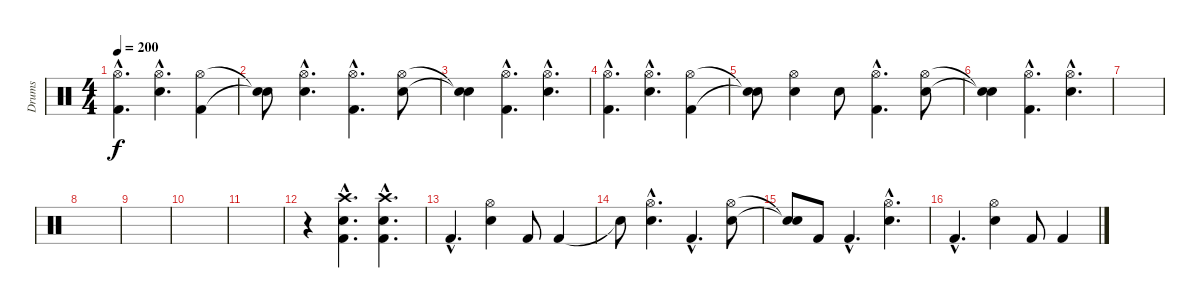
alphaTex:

\track ("Drums" "Drums") {instrument percussion}
\staff {score}
\articulation defaults
\ts (4 4)
\tempo 200
\clef neutral
\ks c
("Hi-Hat (open)"{hac} "Kick (hit) 2"{hac}).4{d dy f} ("Hi-Hat (open)"{hac} "Snare (hit) 2"{hac}).4{d} ("Hi-Hat (open)" "Kick (hit) 2").4 |
("Snare (hit)"{t} "Snare (hit)"{t}).8 ("Hi-Hat (open)"{hac} "Snare (hit) 2"{hac}).4{d} ("Hi-Hat (open)"{hac} "Kick (hit) 2"{hac}).4{d} ("Hi-Hat (open)" "Snare (hit) 2").8 |
("Snare (hit)"{t} "Snare (hit)"{t}).4 ("Hi-Hat (open)"{hac} "Kick (hit) 2"{hac}).4{d} ("Hi-Hat (open)"{hac} "Snare (hit) 2"{hac}).4{d} |
("Hi-Hat (open)"{hac} "Kick (hit) 2"{hac}).4{d} ("Hi-Hat (open)"{hac} "Snare (hit) 2"{hac}).4{d} ("Hi-Hat (open)" "Kick (hit) 2").4 |
("Snare (hit)"{t} "Snare (hit)"{t}).8 ("Hi-Hat (open)" "Snare (hit) 2").4 "Snare (hit) 2".8 ("Hi-Hat (open)"{hac} "Kick (hit) 2"{hac}).4{d} ("Hi-Hat (open)" "Snare (hit) 2").8 |
("Snare (hit)"{t} "Snare (hit)"{t}).4 ("Hi-Hat (open)"{hac} "Kick (hit) 2"{hac}).4{d} ("Hi-Hat (open)"{hac} "Snare (hit) 2"{hac}).4{d} |
|
|
|
|
|
r.4 ("Crash high (hit)"{hac} "Snare (hit) 2"{hac} "Kick (hit) 2"{hac}).4{d} ("Crash high (hit)"{hac} "Snare (hit) 2"{hac} "Kick (hit) 2"{hac}).4{d} |
"Kick (hit) 2"{hac}.4{d} ("Hi-Hat (open)" "Snare (hit) 2").4 "Kick (hit) 2".8 "Kick (hit) 2".4 |
"Snare (hit)"{t}.8 ("Hi-Hat (open)"{hac} "Snare (hit) 2"{hac}).4{d} "Kick (hit) 2"{hac}.4{d} ("Hi-Hat (open)" "Snare (hit) 2").8 |
("Snare (hit)"{t} "Snare (hit)"{t}).8 "Kick (hit) 2".8 "Kick (hit) 2"{hac}.4{d} ("Hi-Hat (open)"{hac} "Snare (hit) 2"{hac}).4{d} |
"Kick (hit) 2"{hac}.4{d} ("Hi-Hat (open)" "Snare (hit) 2").4 "Kick (hit) 2".8 "Kick (hit) 2".4
